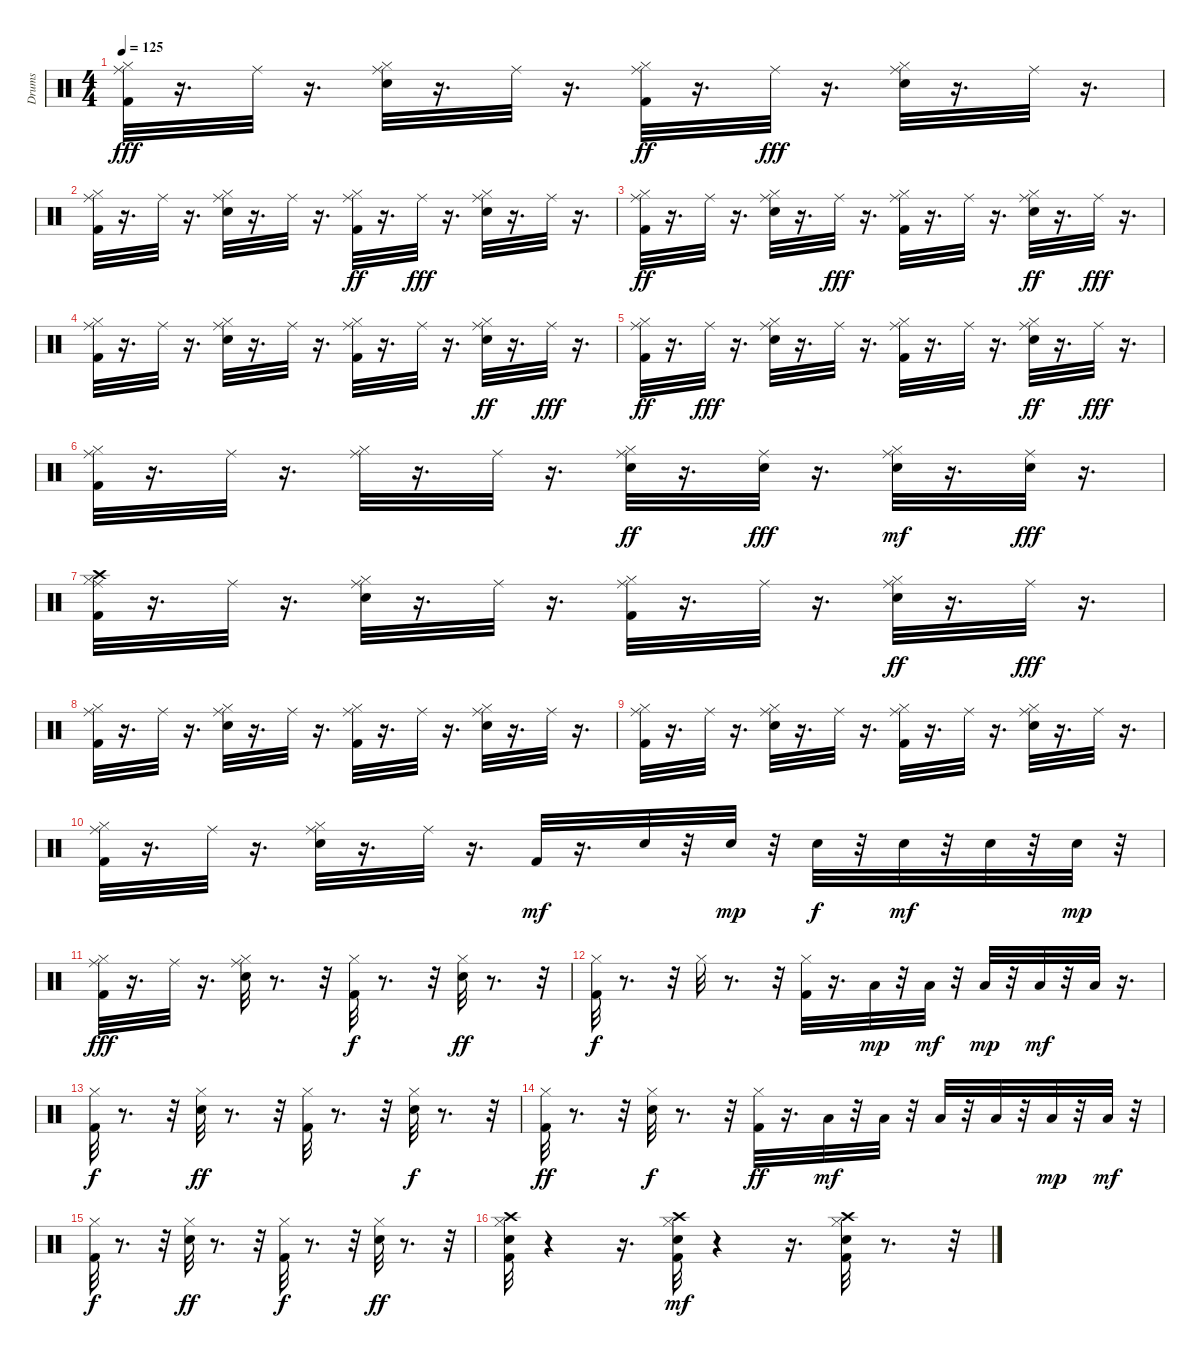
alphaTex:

\track ("Drums" "Drums") {instrument percussion}
\staff {score}
\articulation defaults
\ts (4 4)
\tempo 125
\clef neutral
\ks c
("Kick (hit) 2" "Ride (middle)" "Hi-Hat (closed)").32{dy fff} r.16{d} "Ride (middle)".32 r.16{d} ("Hi-Hat (closed)" "Ride (middle)" "Snare (hit) 2").32 r.16{d} "Ride (middle)".32 r.16{d} ("Kick (hit) 2" "Ride (middle)" "Hi-Hat (closed)").32{dy ff} r.16{d} "Ride (middle)".32{dy fff} r.16{d} ("Hi-Hat (closed)" "Ride (middle)" "Snare (hit) 2").32 r.16{d} "Ride (middle)".32 r.16{d} |
("Kick (hit) 2" "Hi-Hat (closed)" "Ride (middle)").32 r.16{d} "Ride (middle)".32 r.16{d} ("Hi-Hat (closed)" "Ride (middle)" "Snare (hit) 2").32 r.16{d} "Ride (middle)".32 r.16{d} ("Ride (middle)" "Kick (hit) 2" "Hi-Hat (closed)").32{dy ff} r.16{d} "Ride (middle)".32{dy fff} r.16{d} ("Snare (hit) 2" "Ride (middle)" "Hi-Hat (closed)").32 r.16{d} "Ride (middle)".32 r.16{d} |
("Kick (hit) 2" "Ride (middle)" "Hi-Hat (closed)").32{dy ff} r.16{d} "Ride (middle)".32 r.16{d} ("Hi-Hat (closed)" "Ride (middle)" "Snare (hit) 2").32 r.16{d} "Ride (middle)".32{dy fff} r.16{d} ("Hi-Hat (closed)" "Ride (middle)" "Kick (hit) 2").32 r.16{d} "Ride (middle)".32 r.16{d} ("Ride (middle)" "Hi-Hat (closed)" "Snare (hit) 2").32{dy ff} r.16{d} "Ride (middle)".32{dy fff} r.16{d} |
("Hi-Hat (closed)" "Ride (middle)" "Kick (hit) 2").32 r.16{d} "Ride (middle)".32 r.16{d} ("Snare (hit) 2" "Hi-Hat (closed)" "Ride (middle)").32 r.16{d} "Ride (middle)".32 r.16{d} ("Kick (hit) 2" "Hi-Hat (closed)" "Ride (middle)").32 r.16{d} "Ride (middle)".32 r.16{d} ("Hi-Hat (closed)" "Ride (middle)" "Snare (hit) 2").32{dy ff} r.16{d} "Ride (middle)".32{dy fff} r.16{d} |
("Kick (hit) 2" "Ride (middle)" "Hi-Hat (closed)").32{dy ff} r.16{d} "Ride (middle)".32{dy fff} r.16{d} ("Hi-Hat (closed)" "Snare (hit) 2" "Ride (middle)").32 r.16{d} "Ride (middle)".32 r.16{d} ("Ride (middle)" "Hi-Hat (closed)" "Kick (hit) 2").32 r.16{d} "Ride (middle)".32 r.16{d} ("Ride (middle)" "Snare (hit) 2" "Hi-Hat (closed)").32{dy ff} r.16{d} "Ride (middle)".32{dy fff} r.16{d} |
("Ride (middle)" "Hi-Hat (closed)" "Kick (hit) 2").32 r.16{d} "Ride (middle)".32 r.16{d} ("Hi-Hat (closed)" "Ride (middle)").32 r.16{d} "Ride (middle)".32 r.16{d} ("Snare (hit) 2" "Ride (middle)" "Hi-Hat (closed)").32{dy ff} r.16{d} ("Snare (hit) 2" "Ride (middle)").32{dy fff} r.16{d} ("Ride (middle)" "Hi-Hat (closed)" "Snare (hit) 2").32{dy mf} r.16{d} ("Snare (hit) 2" "Ride (middle)").32{dy fff} r.16{d} |
("Kick (hit) 2" "Crash high (hit)" "Hi-Hat (closed)" "Ride (middle)").32 r.16{d} "Ride (middle)".32 r.16{d} ("Hi-Hat (closed)" "Ride (middle)" "Snare (hit) 2").32 r.16{d} "Ride (middle)".32 r.16{d} ("Hi-Hat (closed)" "Kick (hit) 2" "Ride (middle)").32 r.16{d} "Ride (middle)".32 r.16{d} ("Ride (middle)" "Hi-Hat (closed)" "Snare (hit) 2").32{dy ff} r.16{d} "Ride (middle)".32{dy fff} r.16{d} |
("Kick (hit) 2" "Ride (middle)" "Hi-Hat (closed)").32 r.16{d} "Ride (middle)".32 r.16{d} ("Snare (hit) 2" "Hi-Hat (closed)" "Ride (middle)").32 r.16{d} "Ride (middle)".32 r.16{d} ("Hi-Hat (closed)" "Kick (hit) 2" "Ride (middle)").32 r.16{d} "Ride (middle)".32 r.16{d} ("Ride (middle)" "Snare (hit) 2" "Hi-Hat (closed)").32 r.16{d} "Ride (middle)".32 r.16{d} |
("Hi-Hat (closed)" "Ride (middle)" "Kick (hit) 2").32 r.16{d} "Ride (middle)".32 r.16{d} ("Snare (hit) 2" "Ride (middle)" "Hi-Hat (closed)").32 r.16{d} "Ride (middle)".32 r.16{d} ("Kick (hit) 2" "Hi-Hat (closed)" "Ride (middle)").32 r.16{d} "Ride (middle)".32 r.16{d} ("Snare (hit) 2" "Hi-Hat (closed)" "Ride (middle)").32 r.16{d} "Ride (middle)".32 r.16{d} |
("Hi-Hat (closed)" "Kick (hit) 2" "Ride (middle)").32 r.16{d} "Ride (middle)".32 r.16{d} ("Hi-Hat (closed)" "Snare (hit) 2" "Ride (middle)").32 r.16{d} "Ride (middle)".32 r.16{d} "Kick (hit) 2".32{dy mf} r.16{d} "Snare (hit) 2".32 r.32 "Snare (hit) 2".32{dy mp} r.32 "Snare (hit) 2".32{dy f} r.32 "Snare (hit) 2".32{dy mf} r.32 "Snare (hit) 2".32 r.32 "Snare (hit) 2".32{dy mp} r.32 |
("Hi-Hat (closed)" "Kick (hit) 2" "Ride (middle)").32{dy fff} r.16{d} "Ride (middle)".32 r.16{d} ("Hi-Hat (closed)" "Snare (hit) 2" "Ride (middle)").32 r.8{d} r.32 ("Kick (hit) 2" "Hi-Hat (closed)").32{dy f} r.8{d} r.32 ("Snare (hit) 2" "Hi-Hat (closed)").32{dy ff} r.8{d} r.32 |
("Kick (hit) 2" "Hi-Hat (closed)").32{dy f} r.8{d} r.32 "Hi-Hat (closed)".32 r.8{d} r.32 ("Kick (hit) 2" "Hi-Hat (closed)").32 r.16{d} "Low Floor Tom (hit)".32{dy mp} r.32 "Low Floor Tom (hit)".32{dy mf} r.32 "Low Floor Tom (hit)".32{dy mp} r.32 "Low Floor Tom (hit)".32{dy mf} r.32 "Low Floor Tom (hit)".32 r.16{d} |
("Kick (hit) 2" "Hi-Hat (closed)").32{dy f} r.8{d} r.32 ("Hi-Hat (closed)" "Snare (hit) 2").32{dy ff} r.8{d} r.32 ("Kick (hit) 2" "Hi-Hat (closed)").32 r.8{d} r.32 ("Snare (hit) 2" "Hi-Hat (closed)").32{dy f} r.8{d} r.32 |
("Kick (hit) 2" "Hi-Hat (closed)").32{dy ff} r.8{d} r.32 ("Hi-Hat (closed)" "Snare (hit) 2").32{dy f} r.8{d} r.32 ("Kick (hit) 2" "Hi-Hat (closed)").32{dy ff} r.16{d} "Low Floor Tom (hit)".32{dy mf} r.32 "Low Floor Tom (hit)".32 r.32 "Low Floor Tom (hit)".32 r.32 "Low Floor Tom (hit)".32 r.32 "Low Floor Tom (hit)".32{dy mp} r.32 "Low Floor Tom (hit)".32{dy mf} r.32 |
("Hi-Hat (closed)" "Kick (hit) 2").32{dy f} r.8{d} r.32 ("Hi-Hat (closed)" "Snare (hit) 2").32{dy ff} r.8{d} r.32 ("Hi-Hat (closed)" "Kick (hit) 2").32{dy f} r.8{d} r.32 ("Hi-Hat (closed)" "Snare (hit) 2").32{dy ff} r.8{d} r.32 |
("Hi-Hat (closed)" "Crash high (hit)" "Kick (hit) 2" "Snare (hit) 2").32 r.4 r.16{d} ("Kick (hit) 2" "Crash high (hit)" "Snare (hit) 2" "Hi-Hat (closed)").32{dy mf} r.4 r.16{d} ("Snare (hit) 2" "Hi-Hat (closed)" "Kick (hit) 2" "Crash high (hit)").32 r.8{d} r.32
